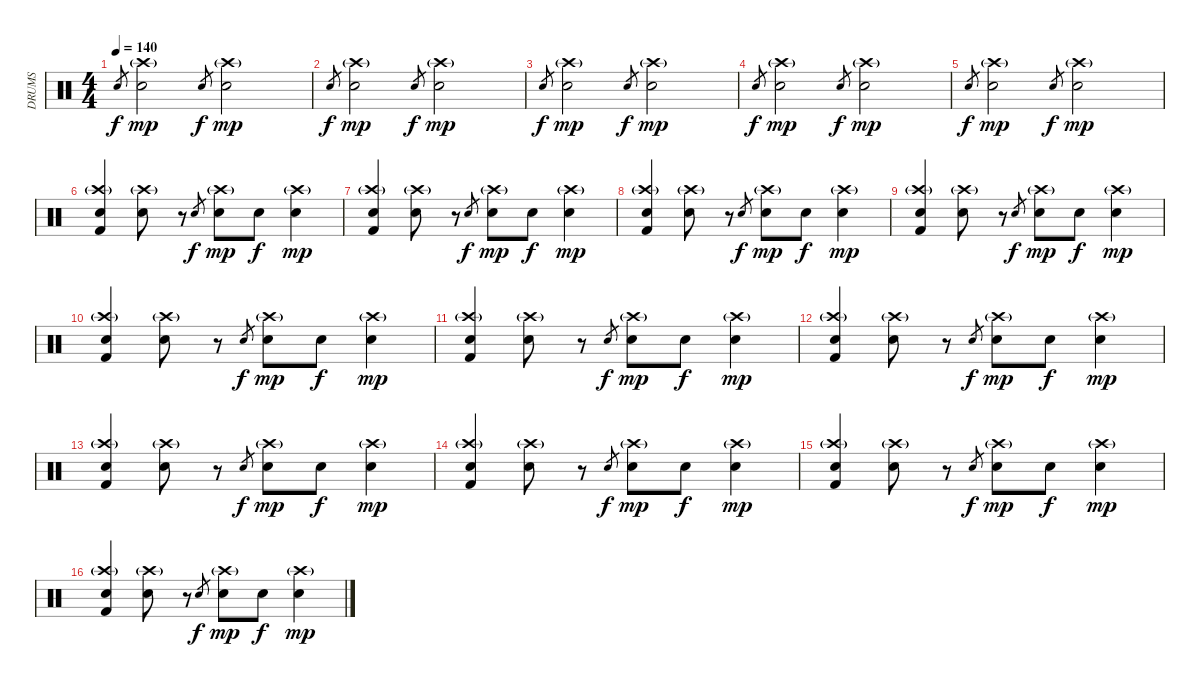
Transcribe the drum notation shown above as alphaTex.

\track ("DRUMS" "DRUMS") {instrument percussion}
\staff {score}
\articulation defaults
\ts (4 4)
\tempo 140
\clef neutral
\ks c "Electric Snare (hit)".8{gr dy f}
("Electric Snare (hit)" "Crash high (hit)"{g}).2{dy mp} "Electric Snare (hit)".8{gr dy f} ("Electric Snare (hit)" "Crash high (hit)"{g}).2{dy mp} |
"Electric Snare (hit)".8{gr dy f} ("Electric Snare (hit)" "Crash high (hit)"{g}).2{dy mp} "Electric Snare (hit)".8{gr dy f} ("Electric Snare (hit)" "Crash high (hit)"{g}).2{dy mp} |
"Electric Snare (hit)".8{gr dy f} ("Electric Snare (hit)" "Crash high (hit)"{g}).2{dy mp} "Electric Snare (hit)".8{gr dy f} ("Electric Snare (hit)" "Crash high (hit)"{g}).2{dy mp} |
"Electric Snare (hit)".8{gr dy f} ("Electric Snare (hit)" "Crash high (hit)"{g}).2{dy mp} "Electric Snare (hit)".8{gr dy f} ("Electric Snare (hit)" "Crash high (hit)"{g}).2{dy mp} |
"Electric Snare (hit)".8{gr dy f} ("Electric Snare (hit)" "Crash high (hit)"{g}).2{dy mp} "Electric Snare (hit)".8{gr dy f} ("Electric Snare (hit)" "Crash high (hit)"{g}).2{dy mp} |
("Kick (hit) 2" "Electric Snare (hit)" "Crash high (hit)"{g}).4 ("Electric Snare (hit)" "Crash high (hit)"{g}).8 r.8 "Electric Snare (hit)".8{gr dy f} ("Electric Snare (hit)" "Crash high (hit)"{g}).8{dy mp} "Electric Snare (hit)".8{dy f} ("Electric Snare (hit)" "Crash high (hit)"{g}).4{dy mp} |
("Kick (hit) 2" "Electric Snare (hit)" "Crash high (hit)"{g}).4 ("Electric Snare (hit)" "Crash high (hit)"{g}).8 r.8 "Electric Snare (hit)".8{gr dy f} ("Electric Snare (hit)" "Crash high (hit)"{g}).8{dy mp} "Electric Snare (hit)".8{dy f} ("Electric Snare (hit)" "Crash high (hit)"{g}).4{dy mp} |
("Kick (hit) 2" "Electric Snare (hit)" "Crash high (hit)"{g}).4 ("Electric Snare (hit)" "Crash high (hit)"{g}).8 r.8 "Electric Snare (hit)".8{gr dy f} ("Electric Snare (hit)" "Crash high (hit)"{g}).8{dy mp} "Electric Snare (hit)".8{dy f} ("Electric Snare (hit)" "Crash high (hit)"{g}).4{dy mp} |
("Kick (hit) 2" "Electric Snare (hit)" "Crash high (hit)"{g}).4 ("Electric Snare (hit)" "Crash high (hit)"{g}).8 r.8 "Electric Snare (hit)".8{gr dy f} ("Electric Snare (hit)" "Crash high (hit)"{g}).8{dy mp} "Electric Snare (hit)".8{dy f} ("Electric Snare (hit)" "Crash high (hit)"{g}).4{dy mp} |
("Kick (hit) 2" "Electric Snare (hit)" "Crash high (hit)"{g}).4 ("Electric Snare (hit)" "Crash high (hit)"{g}).8 r.8 "Electric Snare (hit)".8{gr dy f} ("Electric Snare (hit)" "Crash high (hit)"{g}).8{dy mp} "Electric Snare (hit)".8{dy f} ("Electric Snare (hit)" "Crash high (hit)"{g}).4{dy mp} |
("Kick (hit) 2" "Electric Snare (hit)" "Crash high (hit)"{g}).4 ("Electric Snare (hit)" "Crash high (hit)"{g}).8 r.8 "Electric Snare (hit)".8{gr dy f} ("Electric Snare (hit)" "Crash high (hit)"{g}).8{dy mp} "Electric Snare (hit)".8{dy f} ("Electric Snare (hit)" "Crash high (hit)"{g}).4{dy mp} |
("Kick (hit) 2" "Electric Snare (hit)" "Crash high (hit)"{g}).4 ("Electric Snare (hit)" "Crash high (hit)"{g}).8 r.8 "Electric Snare (hit)".8{gr dy f} ("Electric Snare (hit)" "Crash high (hit)"{g}).8{dy mp} "Electric Snare (hit)".8{dy f} ("Electric Snare (hit)" "Crash high (hit)"{g}).4{dy mp} |
("Kick (hit) 2" "Electric Snare (hit)" "Crash high (hit)"{g}).4 ("Electric Snare (hit)" "Crash high (hit)"{g}).8 r.8 "Electric Snare (hit)".8{gr dy f} ("Electric Snare (hit)" "Crash high (hit)"{g}).8{dy mp} "Electric Snare (hit)".8{dy f} ("Electric Snare (hit)" "Crash high (hit)"{g}).4{dy mp} |
("Kick (hit) 2" "Electric Snare (hit)" "Crash high (hit)"{g}).4 ("Electric Snare (hit)" "Crash high (hit)"{g}).8 r.8 "Electric Snare (hit)".8{gr dy f} ("Electric Snare (hit)" "Crash high (hit)"{g}).8{dy mp} "Electric Snare (hit)".8{dy f} ("Electric Snare (hit)" "Crash high (hit)"{g}).4{dy mp} |
("Kick (hit) 2" "Electric Snare (hit)" "Crash high (hit)"{g}).4 ("Electric Snare (hit)" "Crash high (hit)"{g}).8 r.8 "Electric Snare (hit)".8{gr dy f} ("Electric Snare (hit)" "Crash high (hit)"{g}).8{dy mp} "Electric Snare (hit)".8{dy f} ("Electric Snare (hit)" "Crash high (hit)"{g}).4{dy mp} |
("Kick (hit) 2" "Electric Snare (hit)" "Crash high (hit)"{g}).4 ("Electric Snare (hit)" "Crash high (hit)"{g}).8 r.8 "Electric Snare (hit)".8{gr dy f} ("Electric Snare (hit)" "Crash high (hit)"{g}).8{dy mp} "Electric Snare (hit)".8{dy f} ("Electric Snare (hit)" "Crash high (hit)"{g}).4{dy mp}
